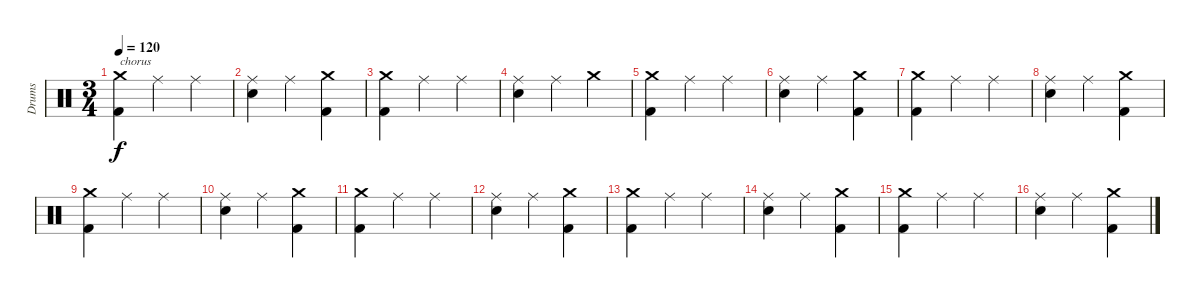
\track ("Drums" "Drums") {instrument percussion}
\staff {score}
\articulation defaults
\ts (3 4)
\tempo 120
\clef neutral
\ks c
("Crash medium (hit)" "Kick (hit) 2").4{txt "chorus" dy f} "Ride (middle)".4 "Ride (middle)".4 |
("Ride (middle)" "Electric Snare (hit)").4 "Ride (middle)".4 ("Crash medium (hit)" "Kick (hit) 2").4 |
("Crash medium (hit)" "Kick (hit) 2").4 "Ride (middle)".4 "Ride (middle)".4 |
("Ride (middle)" "Electric Snare (hit)").4 "Ride (middle)".4 "Crash medium (hit)".4 |
("Crash medium (hit)" "Kick (hit) 2").4 "Ride (middle)".4 "Ride (middle)".4 |
("Ride (middle)" "Electric Snare (hit)").4 "Ride (middle)".4 ("Crash medium (hit)" "Kick (hit) 2").4 |
("Crash medium (hit)" "Kick (hit) 2").4 "Ride (middle)".4 "Ride (middle)".4 |
("Ride (middle)" "Electric Snare (hit)").4 "Ride (middle)".4 ("Crash medium (hit)" "Kick (hit) 2").4 |
("Crash medium (hit)" "Kick (hit) 2").4 "Ride (middle)".4 "Ride (middle)".4 |
("Ride (middle)" "Electric Snare (hit)").4 "Ride (middle)".4 ("Crash medium (hit)" "Kick (hit) 2").4 |
("Crash medium (hit)" "Kick (hit) 2").4 "Ride (middle)".4 "Ride (middle)".4 |
("Ride (middle)" "Electric Snare (hit)").4 "Ride (middle)".4 ("Crash medium (hit)" "Kick (hit) 2").4 |
("Crash medium (hit)" "Kick (hit) 2").4 "Ride (middle)".4 "Ride (middle)".4 |
("Ride (middle)" "Electric Snare (hit)").4 "Ride (middle)".4 ("Crash medium (hit)" "Kick (hit) 2").4 |
("Crash medium (hit)" "Kick (hit) 2").4 "Ride (middle)".4 "Ride (middle)".4 |
("Ride (middle)" "Electric Snare (hit)").4 "Ride (middle)".4 ("Crash medium (hit)" "Kick (hit) 2").4
